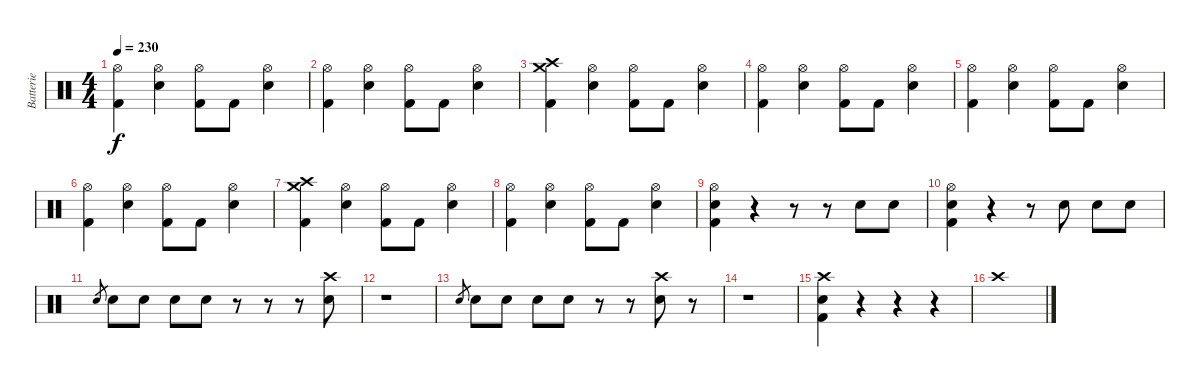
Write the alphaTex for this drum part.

\track ("Batterie" "Batterie") {instrument percussion}
\staff {score}
\articulation defaults
\ts (4 4)
\tempo 230
\clef neutral
\ks c
("Hi-Hat (open)" "Kick (hit) 2").4{dy f} ("Hi-Hat (open)" "Electric Snare (hit)").4 ("Hi-Hat (open)" "Kick (hit) 2").8 "Kick (hit) 2".8 ("Hi-Hat (open)" "Electric Snare (hit)").4 |
("Hi-Hat (open)" "Kick (hit) 2").4 ("Hi-Hat (open)" "Electric Snare (hit)").4 ("Hi-Hat (open)" "Kick (hit) 2").8 "Kick (hit) 2".8 ("Hi-Hat (open)" "Electric Snare (hit)").4 |
("Crash high (hit)" "Crash medium (hit)" "Kick (hit) 2").4 ("Hi-Hat (open)" "Electric Snare (hit)").4 ("Hi-Hat (open)" "Kick (hit) 2").8 "Kick (hit) 2".8 ("Hi-Hat (open)" "Electric Snare (hit)").4 |
("Hi-Hat (open)" "Kick (hit) 2").4 ("Hi-Hat (open)" "Electric Snare (hit)").4 ("Hi-Hat (open)" "Kick (hit) 2").8 "Kick (hit) 2".8 ("Hi-Hat (open)" "Electric Snare (hit)").4 |
("Hi-Hat (open)" "Kick (hit) 2").4 ("Hi-Hat (open)" "Electric Snare (hit)").4 ("Hi-Hat (open)" "Kick (hit) 2").8 "Kick (hit) 2".8 ("Hi-Hat (open)" "Electric Snare (hit)").4 |
("Hi-Hat (open)" "Kick (hit) 2").4 ("Hi-Hat (open)" "Electric Snare (hit)").4 ("Hi-Hat (open)" "Kick (hit) 2").8 "Kick (hit) 2".8 ("Hi-Hat (open)" "Electric Snare (hit)").4 |
("Crash high (hit)" "Crash medium (hit)" "Kick (hit) 2").4 ("Hi-Hat (open)" "Electric Snare (hit)").4 ("Hi-Hat (open)" "Kick (hit) 2").8 "Kick (hit) 2".8 ("Hi-Hat (open)" "Electric Snare (hit)").4 |
("Hi-Hat (open)" "Kick (hit) 2").4 ("Hi-Hat (open)" "Electric Snare (hit)").4 ("Hi-Hat (open)" "Kick (hit) 2").8 "Kick (hit) 2".8 ("Hi-Hat (open)" "Electric Snare (hit)").4 |
("Hi-Hat (open)" "Electric Snare (hit)" "Kick (hit) 2").4 r.4 r.8 r.8 "Electric Snare (hit)".8 "Electric Snare (hit)".8 |
("Hi-Hat (open)" "Electric Snare (hit)" "Kick (hit) 2").4 r.4 r.8 "Electric Snare (hit)".8 "Electric Snare (hit)".8 "Electric Snare (hit)".8 |
"Electric Snare (hit)".8{gr} "Electric Snare (hit)".8 "Electric Snare (hit)".8 "Electric Snare (hit)".8 "Electric Snare (hit)".8 r.8 r.8 r.8 ("Crash high (hit)" "Electric Snare (hit)").8 |
r.1 |
"Electric Snare (hit)".8{gr} "Electric Snare (hit)".8 "Electric Snare (hit)".8 "Electric Snare (hit)".8 "Electric Snare (hit)".8 r.8 r.8 ("Crash high (hit)" "Electric Snare (hit)").8 r.8 |
r.1 |
("Crash high (hit)" "Electric Snare (hit)" "Kick (hit) 2").4 r.4 r.4 r.4 |
"Crash high (hit)".1
